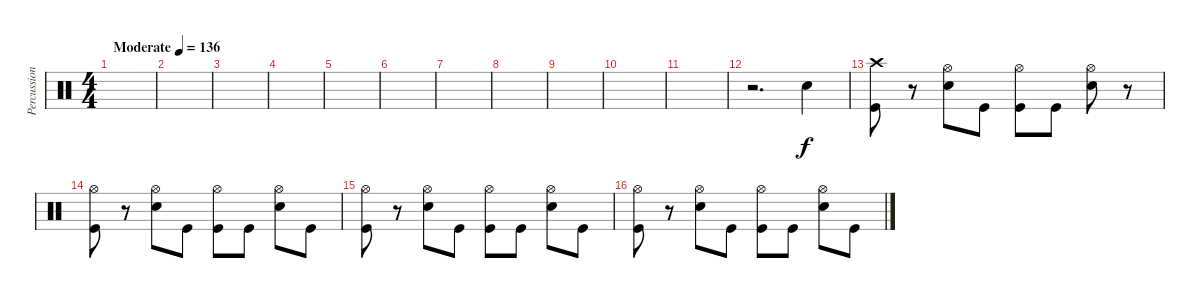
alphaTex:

\track ("Percussion" "Percussion") {instrument percussion}
\staff {score}
\articulation defaults
\ts (4 4)
\tempo (136 "Moderate")
\clef neutral
\ks c
|
|
|
|
|
|
|
|
|
|
|
r.2{d} "Snare (hit) 2".4 |
("Crash high (hit)" "Kick (hit)").8 r.8 ("Hi-Hat (open)" "Snare (hit) 2").8 "Kick (hit)".8 ("Hi-Hat (open)" "Kick (hit)").8 "Kick (hit)".8 ("Hi-Hat (open)" "Snare (hit) 2").8 r.8 |
("Hi-Hat (open)" "Kick (hit)").8 r.8 ("Hi-Hat (open)" "Snare (hit) 2").8 "Kick (hit)".8 ("Hi-Hat (open)" "Kick (hit)").8 "Kick (hit)".8 ("Hi-Hat (open)" "Snare (hit) 2").8 "Kick (hit)".8 |
("Hi-Hat (open)" "Kick (hit)").8 r.8 ("Hi-Hat (open)" "Snare (hit) 2").8 "Kick (hit)".8 ("Hi-Hat (open)" "Kick (hit)").8 "Kick (hit)".8 ("Hi-Hat (open)" "Snare (hit) 2").8 "Kick (hit)".8 |
("Hi-Hat (open)" "Kick (hit)").8 r.8 ("Hi-Hat (open)" "Snare (hit) 2").8 "Kick (hit)".8 ("Hi-Hat (open)" "Kick (hit)").8 "Kick (hit)".8 ("Hi-Hat (open)" "Snare (hit) 2").8 "Kick (hit)".8
